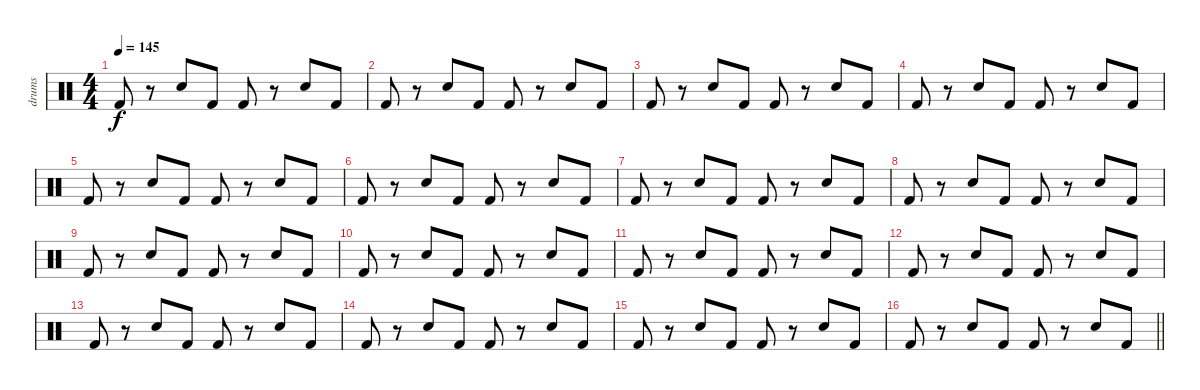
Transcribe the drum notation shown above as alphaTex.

\track ("drums" "drums") {instrument percussion}
\staff {score}
\articulation defaults
\ts (4 4)
\tempo 145
\clef neutral
\ks c "Kick (hit) 2".8{dy f}
r.8 "Snare (hit) 2".8 "Kick (hit) 2".8 "Kick (hit) 2".8 r.8 "Snare (hit) 2".8 "Kick (hit) 2".8 |
"Kick (hit) 2".8 r.8 "Snare (hit) 2".8 "Kick (hit) 2".8 "Kick (hit) 2".8 r.8 "Snare (hit) 2".8 "Kick (hit) 2".8 |
"Kick (hit) 2".8 r.8 "Snare (hit) 2".8 "Kick (hit) 2".8 "Kick (hit) 2".8 r.8 "Snare (hit) 2".8 "Kick (hit) 2".8 |
"Kick (hit) 2".8 r.8 "Snare (hit) 2".8 "Kick (hit) 2".8 "Kick (hit) 2".8 r.8 "Snare (hit) 2".8 "Kick (hit) 2".8 |
"Kick (hit) 2".8 r.8 "Snare (hit) 2".8 "Kick (hit) 2".8 "Kick (hit) 2".8 r.8 "Snare (hit) 2".8 "Kick (hit) 2".8 |
"Kick (hit) 2".8 r.8 "Snare (hit) 2".8 "Kick (hit) 2".8 "Kick (hit) 2".8 r.8 "Snare (hit) 2".8 "Kick (hit) 2".8 |
"Kick (hit) 2".8 r.8 "Snare (hit) 2".8 "Kick (hit) 2".8 "Kick (hit) 2".8 r.8 "Snare (hit) 2".8 "Kick (hit) 2".8 |
"Kick (hit) 2".8 r.8 "Snare (hit) 2".8 "Kick (hit) 2".8 "Kick (hit) 2".8 r.8 "Snare (hit) 2".8 "Kick (hit) 2".8 |
"Kick (hit) 2".8 r.8 "Snare (hit) 2".8 "Kick (hit) 2".8 "Kick (hit) 2".8 r.8 "Snare (hit) 2".8 "Kick (hit) 2".8 |
"Kick (hit) 2".8 r.8 "Snare (hit) 2".8 "Kick (hit) 2".8 "Kick (hit) 2".8 r.8 "Snare (hit) 2".8 "Kick (hit) 2".8 |
"Kick (hit) 2".8 r.8 "Snare (hit) 2".8 "Kick (hit) 2".8 "Kick (hit) 2".8 r.8 "Snare (hit) 2".8 "Kick (hit) 2".8 |
"Kick (hit) 2".8 r.8 "Snare (hit) 2".8 "Kick (hit) 2".8 "Kick (hit) 2".8 r.8 "Snare (hit) 2".8 "Kick (hit) 2".8 |
"Kick (hit) 2".8 r.8 "Snare (hit) 2".8 "Kick (hit) 2".8 "Kick (hit) 2".8 r.8 "Snare (hit) 2".8 "Kick (hit) 2".8 |
"Kick (hit) 2".8 r.8 "Snare (hit) 2".8 "Kick (hit) 2".8 "Kick (hit) 2".8 r.8 "Snare (hit) 2".8 "Kick (hit) 2".8 |
"Kick (hit) 2".8 r.8 "Snare (hit) 2".8 "Kick (hit) 2".8 "Kick (hit) 2".8 r.8 "Snare (hit) 2".8 "Kick (hit) 2".8 |
\barLineRight lightlight "Kick (hit) 2".8
r.8 "Snare (hit) 2".8 "Kick (hit) 2".8 "Kick (hit) 2".8 r.8 "Snare (hit) 2".8 "Kick (hit) 2".8
